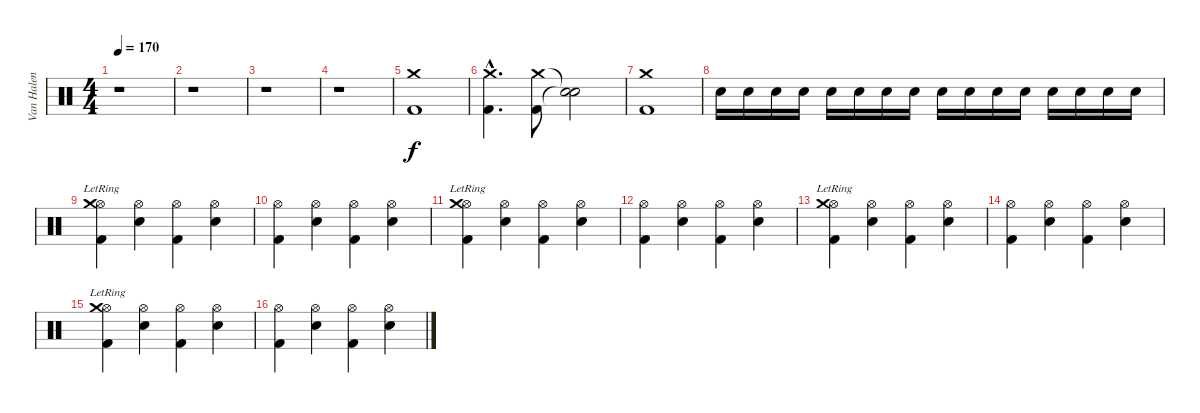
\track ("Van Halen" "Van Halen") {instrument percussion}
\staff {score}
\articulation defaults
\ts (4 4)
\tempo 170
\clef neutral
\ks c
r.1{dy f} |
r.1 |
r.1 |
r.1 |
("Kick (hit) 2" "Crash medium (hit)").1 |
("Kick (hit) 2"{hac} "Crash medium (hit)"{hac}).4{d} ("Kick (hit) 2" "Crash medium (hit)").8 ("Snare (hit)"{t} "Snare (hit)"{t}).2 |
("Kick (hit) 2" "Crash medium (hit)").1 |
"Snare (hit) 2".16 "Snare (hit) 2".16 "Snare (hit) 2".16 "Snare (hit) 2".16 "Snare (hit) 2".16 "Snare (hit) 2".16 "Snare (hit) 2".16 "Snare (hit) 2".16 "Snare (hit) 2".16 "Snare (hit) 2".16 "Snare (hit) 2".16 "Snare (hit) 2".16 "Snare (hit) 2".16 "Snare (hit) 2".16 "Snare (hit) 2".16 "Snare (hit) 2".16 |
("Kick (hit) 2" "Hi-Hat (open)" "Crash medium (hit)"{lr}).4 ("Snare (hit) 2" "Hi-Hat (open)").4 ("Kick (hit) 2" "Hi-Hat (open)").4 ("Snare (hit) 2" "Hi-Hat (open)").4 |
("Kick (hit) 2" "Hi-Hat (open)").4 ("Snare (hit) 2" "Hi-Hat (open)").4 ("Kick (hit) 2" "Hi-Hat (open)").4 ("Snare (hit) 2" "Hi-Hat (open)").4 |
("Kick (hit) 2" "Hi-Hat (open)" "Crash medium (hit)"{lr}).4 ("Snare (hit) 2" "Hi-Hat (open)").4 ("Kick (hit) 2" "Hi-Hat (open)").4 ("Snare (hit) 2" "Hi-Hat (open)").4 |
("Kick (hit) 2" "Hi-Hat (open)").4 ("Snare (hit) 2" "Hi-Hat (open)").4 ("Kick (hit) 2" "Hi-Hat (open)").4 ("Snare (hit) 2" "Hi-Hat (open)").4 |
("Kick (hit) 2" "Hi-Hat (open)" "Crash medium (hit)"{lr}).4 ("Snare (hit) 2" "Hi-Hat (open)").4 ("Kick (hit) 2" "Hi-Hat (open)").4 ("Snare (hit) 2" "Hi-Hat (open)").4 |
("Kick (hit) 2" "Hi-Hat (open)").4 ("Snare (hit) 2" "Hi-Hat (open)").4 ("Kick (hit) 2" "Hi-Hat (open)").4 ("Snare (hit) 2" "Hi-Hat (open)").4 |
("Kick (hit) 2" "Hi-Hat (open)" "Crash medium (hit)"{lr}).4 ("Snare (hit) 2" "Hi-Hat (open)").4 ("Kick (hit) 2" "Hi-Hat (open)").4 ("Snare (hit) 2" "Hi-Hat (open)").4 |
("Kick (hit) 2" "Hi-Hat (open)").4 ("Snare (hit) 2" "Hi-Hat (open)").4 ("Kick (hit) 2" "Hi-Hat (open)").4 ("Snare (hit) 2" "Hi-Hat (open)").4
